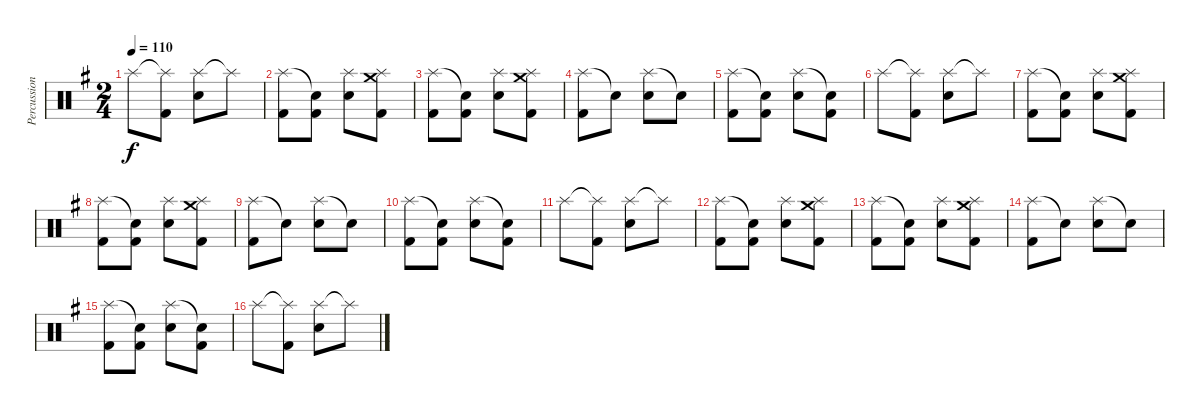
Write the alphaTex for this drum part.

\track ("Percussion" "Percussion") {instrument percussion}
\staff {score}
\articulation defaults
\ts (2 4)
\tempo 110
\clef neutral
\ks g "Splash (hit)".8{dy f}
("Splash (hit)"{t} "Kick (hit) 2").8 ("Splash (hit)" "Electric Snare (hit)").8 "Splash (hit)"{t}.8 |
("Splash (hit)" "Kick (hit) 2").8 ("Snare (hit)"{t} "Kick (hit) 2").8 ("Splash (hit)" "Electric Snare (hit)").8 ("Crash medium (hit)" "Splash (hit)" "Kick (hit) 2").8 |
("Splash (hit)" "Kick (hit) 2").8 ("Snare (hit)"{t} "Kick (hit) 2").8 ("Splash (hit)" "Electric Snare (hit)").8 ("Crash medium (hit)" "Splash (hit)" "Kick (hit) 2").8 |
("Splash (hit)" "Kick (hit) 2").8 "Snare (hit)"{t}.8 ("Splash (hit)" "Electric Snare (hit)").8 "Snare (hit)"{t}.8 |
("Splash (hit)" "Kick (hit) 2").8 ("Snare (hit)"{t} "Kick (hit) 2").8 ("Splash (hit)" "Electric Snare (hit)").8 ("Snare (hit)"{t} "Kick (hit) 2").8 |
"Splash (hit)".8 ("Splash (hit)"{t} "Kick (hit) 2").8 ("Splash (hit)" "Electric Snare (hit)").8 "Splash (hit)"{t}.8 |
("Splash (hit)" "Kick (hit) 2").8 ("Snare (hit)"{t} "Kick (hit) 2").8 ("Splash (hit)" "Electric Snare (hit)").8 ("Crash medium (hit)" "Splash (hit)" "Kick (hit) 2").8 |
("Splash (hit)" "Kick (hit) 2").8 ("Snare (hit)"{t} "Kick (hit) 2").8 ("Splash (hit)" "Electric Snare (hit)").8 ("Crash medium (hit)" "Splash (hit)" "Kick (hit) 2").8 |
("Splash (hit)" "Kick (hit) 2").8 "Snare (hit)"{t}.8 ("Splash (hit)" "Electric Snare (hit)").8 "Snare (hit)"{t}.8 |
("Splash (hit)" "Kick (hit) 2").8 ("Snare (hit)"{t} "Kick (hit) 2").8 ("Splash (hit)" "Electric Snare (hit)").8 ("Snare (hit)"{t} "Kick (hit) 2").8 |
"Splash (hit)".8 ("Splash (hit)"{t} "Kick (hit) 2").8 ("Splash (hit)" "Electric Snare (hit)").8 "Splash (hit)"{t}.8 |
("Splash (hit)" "Kick (hit) 2").8 ("Snare (hit)"{t} "Kick (hit) 2").8 ("Splash (hit)" "Electric Snare (hit)").8 ("Crash medium (hit)" "Splash (hit)" "Kick (hit) 2").8 |
("Splash (hit)" "Kick (hit) 2").8 ("Snare (hit)"{t} "Kick (hit) 2").8 ("Splash (hit)" "Electric Snare (hit)").8 ("Crash medium (hit)" "Splash (hit)" "Kick (hit) 2").8 |
("Splash (hit)" "Kick (hit) 2").8 "Snare (hit)"{t}.8 ("Splash (hit)" "Electric Snare (hit)").8 "Snare (hit)"{t}.8 |
("Splash (hit)" "Kick (hit) 2").8 ("Snare (hit)"{t} "Kick (hit) 2").8 ("Splash (hit)" "Electric Snare (hit)").8 ("Snare (hit)"{t} "Kick (hit) 2").8 |
"Splash (hit)".8 ("Splash (hit)"{t} "Kick (hit) 2").8 ("Splash (hit)" "Electric Snare (hit)").8 "Splash (hit)"{t}.8
